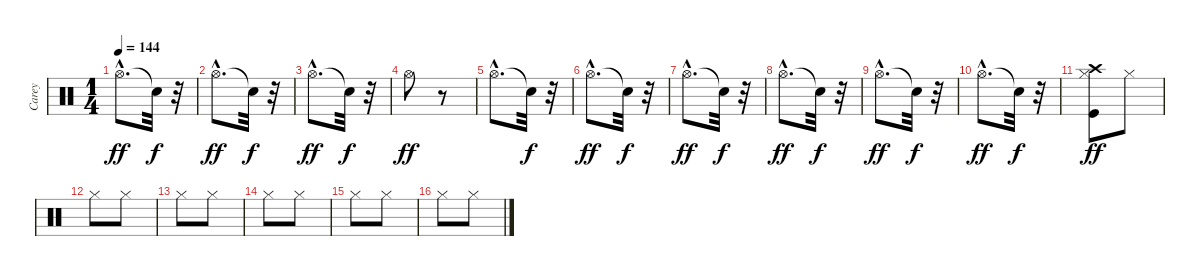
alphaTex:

\track ("Carey" "Carey") {instrument percussion}
\staff {score}
\articulation defaults
\ts (1 4)
\tempo 144
\clef neutral
\ks c "Hi-Hat (open)"{hac}.8{d dy ff} "Snare (hit)"{t}.32{dy f}
r.32 |
"Hi-Hat (open)"{hac}.8{d dy ff} "Snare (hit)"{t}.32{dy f} r.32 |
"Hi-Hat (open)"{hac}.8{d dy ff} "Snare (hit)"{t}.32{dy f} r.32 |
"Hi-Hat (open)".8{dy ff} r.8 |
"Hi-Hat (open)"{hac}.8{d} "Snare (hit)"{t}.32{dy f} r.32 |
"Hi-Hat (open)"{hac}.8{d dy ff} "Snare (hit)"{t}.32{dy f} r.32 |
"Hi-Hat (open)"{hac}.8{d dy ff} "Snare (hit)"{t}.32{dy f} r.32 |
"Hi-Hat (open)"{hac}.8{d dy ff} "Snare (hit)"{t}.32{dy f} r.32 |
"Hi-Hat (open)"{hac}.8{d dy ff} "Snare (hit)"{t}.32{dy f} r.32 |
"Hi-Hat (open)"{hac}.8{d dy ff} "Snare (hit)"{t}.32{dy f} r.32 |
("Kick (hit)" "Hi-Hat (closed)" "Crash high (hit)").8{dy ff} "Hi-Hat (closed)".8 |
"Hi-Hat (closed)".8 "Hi-Hat (closed)".8 |
"Hi-Hat (closed)".8 "Hi-Hat (closed)".8 |
"Hi-Hat (closed)".8 "Hi-Hat (closed)".8 |
"Hi-Hat (closed)".8 "Hi-Hat (closed)".8 |
"Hi-Hat (closed)".8 "Hi-Hat (closed)".8
